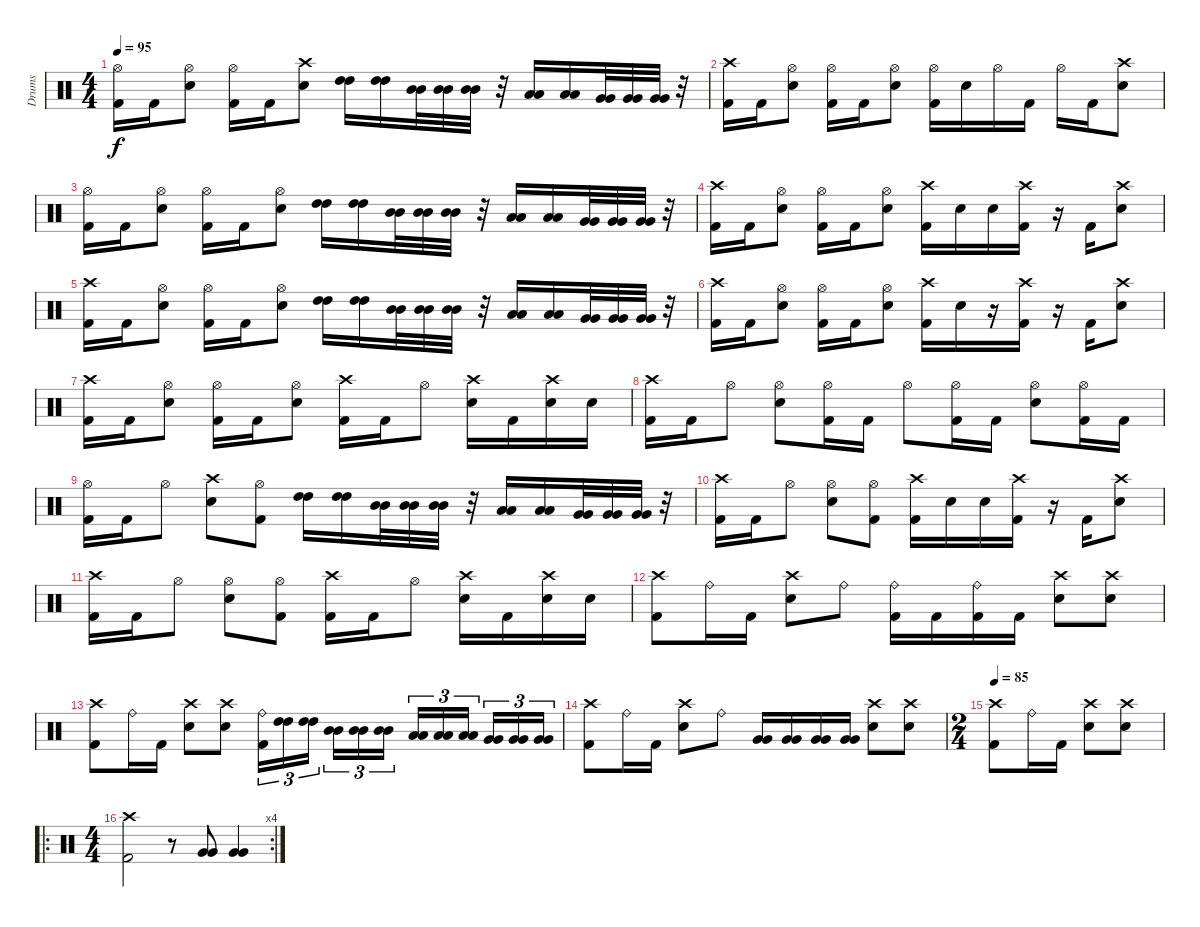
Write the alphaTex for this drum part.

\track ("Drums" "Drums") {instrument percussion}
\staff {score}
\articulation defaults
\ts (4 4)
\tempo 95
\clef neutral
\ks c
("Hi-Hat (open)" "Kick (hit) 2").16{dy f} "Kick (hit) 2".16 ("Hi-Hat (open)" "Electric Snare (hit)").8 ("Hi-Hat (open)" "Kick (hit) 2").16 "Kick (hit) 2".16 ("Crash high (hit)" "Electric Snare (hit)").8 ("High Tom (hit)" "High Tom (hit)").16{balance 10} ("High Tom (hit)" "High Tom (hit)").16 ("Mid Tom (hit)" "Mid Tom (hit)").32{balance 8} ("Mid Tom (hit)" "Mid Tom (hit)").32 ("Mid Tom (hit)" "Mid Tom (hit)").32 r.32 ("Low Tom (hit)" "Low Tom (hit)").16{balance 7} ("Low Tom (hit)" "Low Tom (hit)").16 ("Very Low Tom (hit)" "Very Low Tom (hit)").32{balance 6} ("Very Low Tom (hit)" "Very Low Tom (hit)").32 ("Very Low Tom (hit)" "Very Low Tom (hit)").32 r.32{balance 8} |
("Crash high (hit)" "Kick (hit) 2").16 "Kick (hit) 2".16 ("Hi-Hat (open)" "Electric Snare (hit)").8 ("Hi-Hat (open)" "Kick (hit) 2").16 "Kick (hit) 2".16 ("Hi-Hat (open)" "Electric Snare (hit)").8 ("Hi-Hat (open)" "Kick (hit) 2").16 "Electric Snare (hit)".16 "Hi-Hat (open)".16 "Kick (hit) 2".16 "Hi-Hat (open)".16 "Kick (hit) 2".16 ("Crash high (hit)" "Electric Snare (hit)").8 |
("Hi-Hat (open)" "Kick (hit) 2").16 "Kick (hit) 2".16 ("Hi-Hat (open)" "Electric Snare (hit)").8 ("Hi-Hat (open)" "Kick (hit) 2").16 "Kick (hit) 2".16 ("Hi-Hat (open)" "Electric Snare (hit)").8 ("High Tom (hit)" "High Tom (hit)").16{balance 10} ("High Tom (hit)" "High Tom (hit)").16 ("Mid Tom (hit)" "Mid Tom (hit)").32{balance 8} ("Mid Tom (hit)" "Mid Tom (hit)").32 ("Mid Tom (hit)" "Mid Tom (hit)").32 r.32 ("Low Tom (hit)" "Low Tom (hit)").16{balance 7} ("Low Tom (hit)" "Low Tom (hit)").16 ("Very Low Tom (hit)" "Very Low Tom (hit)").32{balance 6} ("Very Low Tom (hit)" "Very Low Tom (hit)").32 ("Very Low Tom (hit)" "Very Low Tom (hit)").32 r.32{balance 8} |
("Crash high (hit)" "Kick (hit) 2").16 "Kick (hit) 2".16 ("Hi-Hat (open)" "Electric Snare (hit)").8 ("Hi-Hat (open)" "Kick (hit) 2").16 "Kick (hit) 2".16 ("Hi-Hat (open)" "Electric Snare (hit)").8 ("Crash high (hit)" "Kick (hit) 2").16 "Electric Snare (hit)".16 "Electric Snare (hit)".16 ("Crash high (hit)" "Kick (hit) 2").16 r.16 "Kick (hit) 2".16 ("Crash high (hit)" "Electric Snare (hit)").8 |
("Crash high (hit)" "Kick (hit) 2").16 "Kick (hit) 2".16 ("Hi-Hat (open)" "Electric Snare (hit)").8 ("Hi-Hat (open)" "Kick (hit) 2").16 "Kick (hit) 2".16 ("Hi-Hat (open)" "Electric Snare (hit)").8 ("High Tom (hit)" "High Tom (hit)").16{balance 10} ("High Tom (hit)" "High Tom (hit)").16 ("Mid Tom (hit)" "Mid Tom (hit)").32{balance 8} ("Mid Tom (hit)" "Mid Tom (hit)").32 ("Mid Tom (hit)" "Mid Tom (hit)").32 r.32 ("Low Tom (hit)" "Low Tom (hit)").16{balance 7} ("Low Tom (hit)" "Low Tom (hit)").16 ("Very Low Tom (hit)" "Very Low Tom (hit)").32{balance 6} ("Very Low Tom (hit)" "Very Low Tom (hit)").32 ("Very Low Tom (hit)" "Very Low Tom (hit)").32 r.32{balance 8} |
("Crash high (hit)" "Kick (hit) 2").16 "Kick (hit) 2".16 ("Hi-Hat (open)" "Electric Snare (hit)").8 ("Hi-Hat (open)" "Kick (hit) 2").16 "Kick (hit) 2".16 ("Hi-Hat (open)" "Electric Snare (hit)").8 ("Crash high (hit)" "Kick (hit) 2").16 "Electric Snare (hit)".16 r.16 ("Crash high (hit)" "Kick (hit) 2").16 r.16 "Kick (hit) 2".16 ("Crash high (hit)" "Electric Snare (hit)").8 |
("Crash high (hit)" "Kick (hit) 2").16 "Kick (hit) 2".16 ("Hi-Hat (open)" "Electric Snare (hit)").8 ("Hi-Hat (open)" "Kick (hit) 2").16 "Kick (hit) 2".16 ("Hi-Hat (open)" "Electric Snare (hit)").8 ("Crash high (hit)" "Kick (hit) 2").16 "Kick (hit) 2".16 "Hi-Hat (open)".8 ("Crash high (hit)" "Electric Snare (hit)").16 "Kick (hit) 2".16 ("Crash high (hit)" "Electric Snare (hit)").16 "Electric Snare (hit)".16 |
("Crash high (hit)" "Kick (hit) 2").16 "Kick (hit) 2".16 "Hi-Hat (open)".8 ("Hi-Hat (open)" "Electric Snare (hit)").8 ("Hi-Hat (open)" "Kick (hit) 2").16 "Kick (hit) 2".16 "Hi-Hat (open)".8 ("Hi-Hat (open)" "Kick (hit) 2").16 "Kick (hit) 2".16 ("Hi-Hat (open)" "Electric Snare (hit)").8 ("Hi-Hat (open)" "Kick (hit) 2").16 "Kick (hit) 2".16 |
("Hi-Hat (open)" "Kick (hit) 2").16 "Kick (hit) 2".16 "Hi-Hat (open)".8 ("Crash high (hit)" "Electric Snare (hit)").8 ("Hi-Hat (open)" "Kick (hit) 2").8 ("High Tom (hit)" "High Tom (hit)").16{balance 10} ("High Tom (hit)" "High Tom (hit)").16 ("Mid Tom (hit)" "Mid Tom (hit)").32{balance 8} ("Mid Tom (hit)" "Mid Tom (hit)").32 ("Mid Tom (hit)" "Mid Tom (hit)").32 r.32 ("Low Tom (hit)" "Low Tom (hit)").16{balance 7} ("Low Tom (hit)" "Low Tom (hit)").16 ("Very Low Tom (hit)" "Very Low Tom (hit)").32{balance 6} ("Very Low Tom (hit)" "Very Low Tom (hit)").32 ("Very Low Tom (hit)" "Very Low Tom (hit)").32 r.32{balance 8} |
("Crash high (hit)" "Kick (hit) 2").16 "Kick (hit) 2".16 "Hi-Hat (open)".8 ("Hi-Hat (open)" "Electric Snare (hit)").8 ("Hi-Hat (open)" "Kick (hit) 2").8 ("Crash high (hit)" "Kick (hit) 2").16 "Electric Snare (hit)".16 "Electric Snare (hit)".16 ("Crash high (hit)" "Kick (hit) 2").16 r.16 "Kick (hit) 2".16 ("Crash high (hit)" "Electric Snare (hit)").8 |
("Crash high (hit)" "Kick (hit) 2").16 "Kick (hit) 2".16 "Hi-Hat (open)".8 ("Hi-Hat (open)" "Electric Snare (hit)").8 ("Hi-Hat (open)" "Kick (hit) 2").8 ("Crash high (hit)" "Kick (hit) 2").16 "Kick (hit) 2".16 "Hi-Hat (open)".8 ("Crash high (hit)" "Electric Snare (hit)").16 "Kick (hit) 2".16 ("Crash high (hit)" "Electric Snare (hit)").16 "Electric Snare (hit)".16 |
("Crash high (hit)" "Kick (hit) 2").8 "Ride (bell)".16 "Kick (hit) 2".16 ("Crash high (hit)" "Electric Snare (hit)").8 "Ride (bell)".8 ("Ride (bell)" "Kick (hit) 2").16 "Kick (hit) 2".16 ("Ride (bell)" "Kick (hit) 2").16 "Kick (hit) 2".16 ("Crash high (hit)" "Electric Snare (hit)").8 ("Crash high (hit)" "Electric Snare (hit)").8 |
("Crash high (hit)" "Kick (hit) 2").8 "Ride (bell)".16 "Kick (hit) 2".16 ("Crash high (hit)" "Electric Snare (hit)").8 ("Crash high (hit)" "Electric Snare (hit)").8 ("Ride (bell)" "Kick (hit) 2").16{tu (3 2)} ("High Tom (hit)" "High Tom (hit)").16{tu (3 2) balance 5} ("High Tom (hit)" "High Tom (hit)").16{tu (3 2)} ("Mid Tom (hit)" "Mid Tom (hit)").16{tu (3 2) balance 6} ("Mid Tom (hit)" "Mid Tom (hit)").16{tu (3 2)} ("Mid Tom (hit)" "Mid Tom (hit)").16{tu (3 2)} ("Low Tom (hit)" "Low Tom (hit)").16{tu (3 2) balance 8} ("Low Tom (hit)" "Low Tom (hit)").16{tu (3 2)} ("Low Tom (hit)" "Low Tom (hit)").16{tu (3 2)} ("Very Low Tom (hit)" "Very Low Tom (hit)").16{tu (3 2) balance 10} ("Very Low Tom (hit)" "Very Low Tom (hit)").16{tu (3 2)} ("Very Low Tom (hit)" "Very Low Tom (hit)").16{tu (3 2)} |
("Crash high (hit)" "Kick (hit) 2").8{balance 8} "Ride (bell)".16 "Kick (hit) 2".16 ("Crash high (hit)" "Electric Snare (hit)").8 "Ride (bell)".8 ("Very Low Tom (hit)" "Very Low Tom (hit)").16{balance 10} ("Very Low Tom (hit)" "Very Low Tom (hit)").16 ("Very Low Tom (hit)" "Very Low Tom (hit)").16 ("Very Low Tom (hit)" "Very Low Tom (hit)").16 ("Crash high (hit)" "Electric Snare (hit)").8{balance 8} ("Crash high (hit)" "Electric Snare (hit)").8 |
\ts (2 4)
\tempo 85
("Crash high (hit)" "Kick (hit) 2").8 "Ride (bell)".16 "Kick (hit) 2".16 ("Crash high (hit)" "Electric Snare (hit)").8 ("Crash high (hit)" "Electric Snare (hit)").8 |
\ro
\rc 4
\ts (4 4)
("Crash high (hit)" "Kick (hit) 2").2{balance 8} r.8 ("Very Low Tom (hit)" "Very Low Tom (hit)").8{balance 11} ("Very Low Tom (hit)" "Very Low Tom (hit)").4
